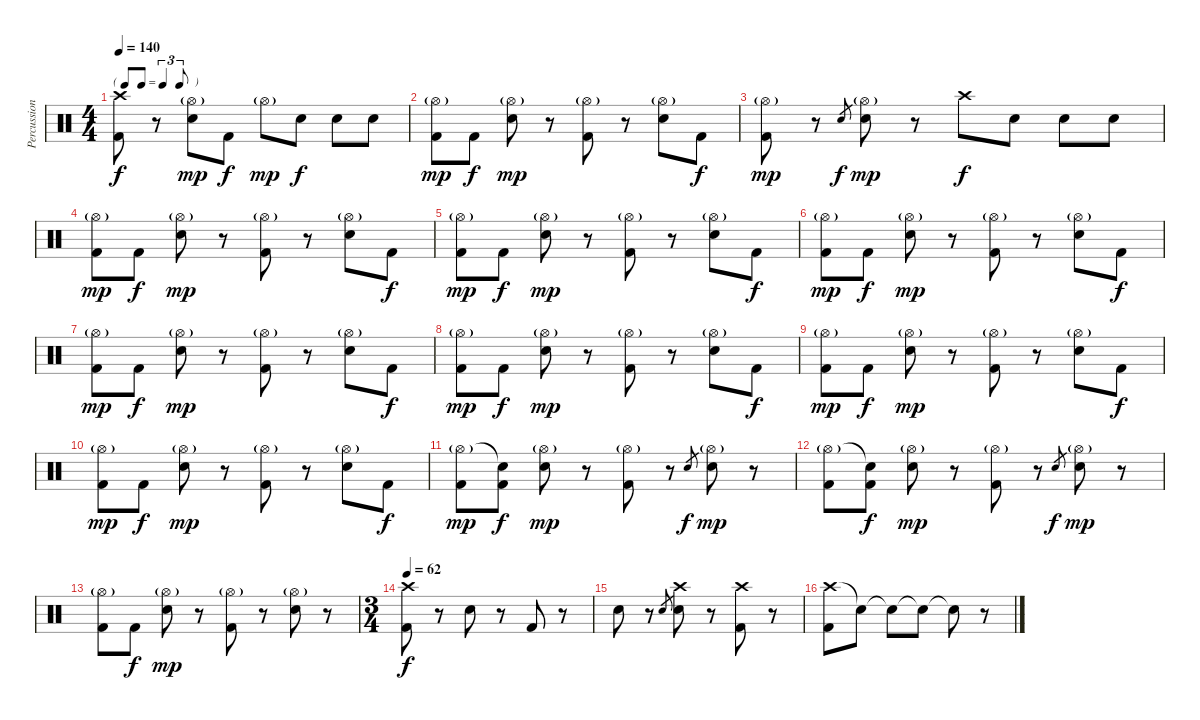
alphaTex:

\track ("Percussion" "Percussion") {instrument percussion}
\staff {score}
\articulation defaults
\ts (4 4)
\tf triplet8th
\tempo 140
\clef neutral
\ks c
("Crash high (hit)" "Kick (hit) 2").8{dy f} r.8 ("Hi-Hat (open)"{g} "Snare (hit) 2").8{dy mp} "Kick (hit) 2".8{dy f} "Hi-Hat (open)"{g}.8{dy mp} "Snare (hit) 2".8{dy f} "Snare (hit) 2".8 "Snare (hit) 2".8 |
("Hi-Hat (open)"{g} "Kick (hit) 2").8{dy mp} "Kick (hit) 2".8{dy f} ("Hi-Hat (open)"{g} "Snare (hit) 2").8{dy mp} r.8 ("Hi-Hat (open)"{g} "Kick (hit) 2").8 r.8 ("Hi-Hat (open)"{g} "Snare (hit) 2").8 "Kick (hit) 2".8{dy f} |
("Hi-Hat (open)"{g} "Kick (hit) 2").8{dy mp} r.8 "Snare (hit) 2".8{gr dy f} ("Hi-Hat (open)"{g} "Snare (hit) 2").8{dy mp} r.8 "Crash high (hit)".8{dy f} "Snare (hit) 2".8 "Snare (hit) 2".8 "Snare (hit) 2".8 |
("Hi-Hat (open)"{g} "Kick (hit) 2").8{dy mp} "Kick (hit) 2".8{dy f} ("Hi-Hat (open)"{g} "Snare (hit) 2").8{dy mp} r.8 ("Hi-Hat (open)"{g} "Kick (hit) 2").8 r.8 ("Hi-Hat (open)"{g} "Snare (hit) 2").8 "Kick (hit) 2".8{dy f} |
("Hi-Hat (open)"{g} "Kick (hit) 2").8{dy mp} "Kick (hit) 2".8{dy f} ("Hi-Hat (open)"{g} "Snare (hit) 2").8{dy mp} r.8 ("Hi-Hat (open)"{g} "Kick (hit) 2").8 r.8 ("Hi-Hat (open)"{g} "Snare (hit) 2").8 "Kick (hit) 2".8{dy f} |
("Hi-Hat (open)"{g} "Kick (hit) 2").8{dy mp} "Kick (hit) 2".8{dy f} ("Hi-Hat (open)"{g} "Snare (hit) 2").8{dy mp} r.8 ("Hi-Hat (open)"{g} "Kick (hit) 2").8 r.8 ("Hi-Hat (open)"{g} "Snare (hit) 2").8 "Kick (hit) 2".8{dy f} |
("Hi-Hat (open)"{g} "Kick (hit) 2").8{dy mp} "Kick (hit) 2".8{dy f} ("Hi-Hat (open)"{g} "Snare (hit) 2").8{dy mp} r.8 ("Hi-Hat (open)"{g} "Kick (hit) 2").8 r.8 ("Hi-Hat (open)"{g} "Snare (hit) 2").8 "Kick (hit) 2".8{dy f} |
("Hi-Hat (open)"{g} "Kick (hit) 2").8{dy mp} "Kick (hit) 2".8{dy f} ("Hi-Hat (open)"{g} "Snare (hit) 2").8{dy mp} r.8 ("Hi-Hat (open)"{g} "Kick (hit) 2").8 r.8 ("Hi-Hat (open)"{g} "Snare (hit) 2").8 "Kick (hit) 2".8{dy f} |
("Hi-Hat (open)"{g} "Kick (hit) 2").8{dy mp} "Kick (hit) 2".8{dy f} ("Hi-Hat (open)"{g} "Snare (hit) 2").8{dy mp} r.8 ("Hi-Hat (open)"{g} "Kick (hit) 2").8 r.8 ("Hi-Hat (open)"{g} "Snare (hit) 2").8 "Kick (hit) 2".8{dy f} |
("Hi-Hat (open)"{g} "Kick (hit) 2").8{dy mp} "Kick (hit) 2".8{dy f} ("Hi-Hat (open)"{g} "Snare (hit) 2").8{dy mp} r.8 ("Hi-Hat (open)"{g} "Kick (hit) 2").8 r.8 ("Hi-Hat (open)"{g} "Snare (hit) 2").8 "Kick (hit) 2".8{dy f} |
("Hi-Hat (open)"{g} "Kick (hit) 2").8{dy mp} ("Snare (hit)"{t} "Kick (hit) 2").8{dy f} ("Hi-Hat (open)"{g} "Snare (hit) 2").8{dy mp} r.8 ("Hi-Hat (open)"{g} "Kick (hit) 2").8 r.8 "Snare (hit) 2".8{gr dy f} ("Hi-Hat (open)"{g} "Snare (hit) 2").8{dy mp} r.8 |
("Hi-Hat (open)"{g} "Kick (hit) 2").8 ("Snare (hit)"{t} "Kick (hit) 2").8{dy f} ("Hi-Hat (open)"{g} "Snare (hit) 2").8{dy mp} r.8 ("Hi-Hat (open)"{g} "Kick (hit) 2").8 r.8 "Snare (hit) 2".8{gr dy f} ("Hi-Hat (open)"{g} "Snare (hit) 2").8{dy mp} r.8 |
("Hi-Hat (open)"{g} "Kick (hit) 2").8 "Kick (hit) 2".8{dy f} ("Hi-Hat (open)"{g} "Snare (hit) 2").8{dy mp} r.8 ("Hi-Hat (open)"{g} "Kick (hit) 2").8 r.8 ("Hi-Hat (open)"{g} "Snare (hit) 2").8 r.8 |
\ts (3 4)
\tempo 62
("Crash high (hit)" "Kick (hit) 2").8{dy f} r.8 "Snare (hit) 2".8 r.8 "Kick (hit) 2".8 r.8 |
"Snare (hit) 2".8 r.8 "Snare (hit) 2".8{gr} ("Crash high (hit)" "Snare (hit) 2").8 r.8 ("Crash high (hit)" "Kick (hit) 2").8 r.8 |
("Crash high (hit)" "Kick (hit) 2").8 "Snare (hit)"{t}.8 "Snare (hit)"{t}.8 "Snare (hit)"{t}.8 "Snare (hit)"{t}.8 r.8
